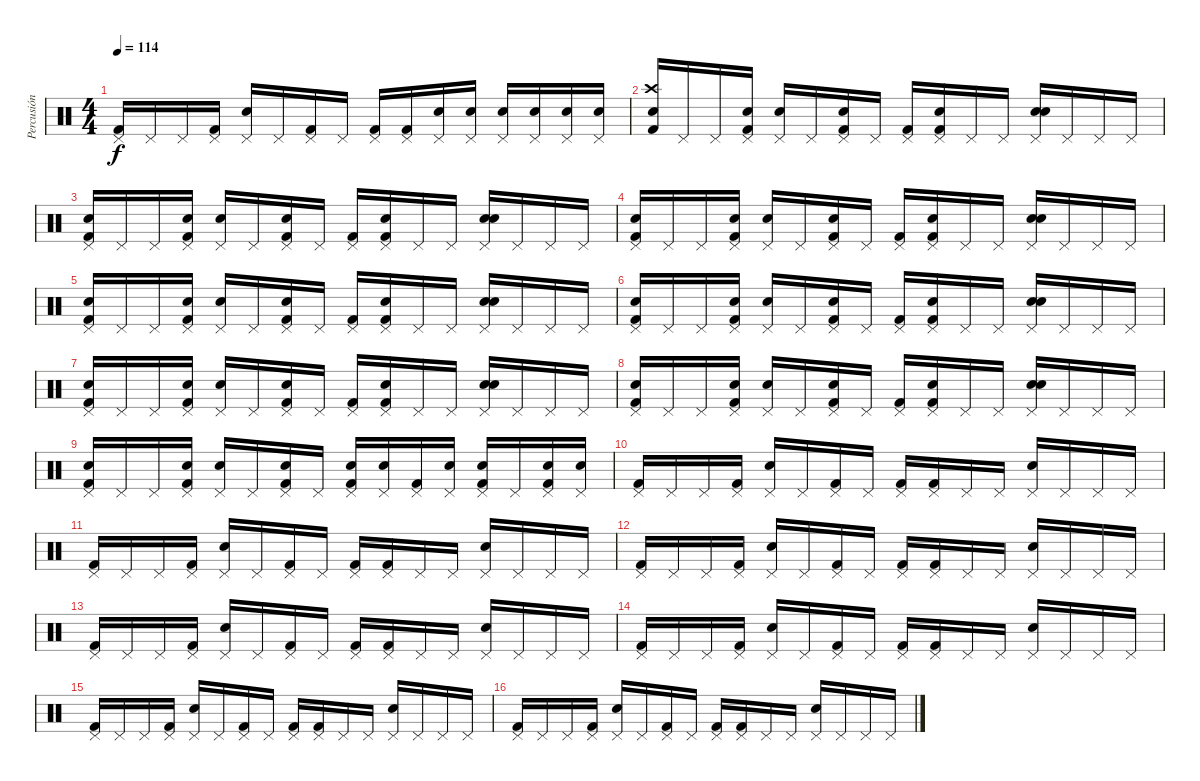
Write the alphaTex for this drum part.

\track ("Percusión" "Percusión") {instrument percussion}
\staff {score}
\articulation defaults
\ts (4 4)
\tempo 114
\clef neutral
\ks c
("Pedal Hi-Hat (hit)" "Kick (hit) 2").16{dy f} "Pedal Hi-Hat (hit)".16 "Pedal Hi-Hat (hit)".16 ("Pedal Hi-Hat (hit)" "Kick (hit) 2").16 ("Pedal Hi-Hat (hit)" "Snare (hit) 2").16 "Pedal Hi-Hat (hit)".16 ("Pedal Hi-Hat (hit)" "Kick (hit) 2").16 "Pedal Hi-Hat (hit)".16 ("Pedal Hi-Hat (hit)" "Kick (hit) 2").16 ("Pedal Hi-Hat (hit)" "Kick (hit) 2").16 ("Pedal Hi-Hat (hit)" "Snare (hit) 2").16 ("Pedal Hi-Hat (hit)" "Snare (hit) 2").16 ("Pedal Hi-Hat (hit)" "Snare (hit) 2").16 ("Pedal Hi-Hat (hit)" "Snare (hit) 2").16 ("Pedal Hi-Hat (hit)" "Snare (hit) 2").16 ("Pedal Hi-Hat (hit)" "Snare (hit) 2").16 |
("Crash high (hit)" "Hand Clap (hit)" "Kick (hit) 2").16 "Pedal Hi-Hat (hit)".16 "Pedal Hi-Hat (hit)".16 ("Pedal Hi-Hat (hit)" "Hand Clap (hit)" "Kick (hit) 2").16 ("Pedal Hi-Hat (hit)" "Snare (hit) 2").16 "Pedal Hi-Hat (hit)".16 ("Pedal Hi-Hat (hit)" "Hand Clap (hit)" "Kick (hit) 2").16 "Pedal Hi-Hat (hit)".16 ("Pedal Hi-Hat (hit)" "Kick (hit) 2").16 ("Pedal Hi-Hat (hit)" "Hand Clap (hit)" "Kick (hit) 2").16 "Pedal Hi-Hat (hit)".16 "Pedal Hi-Hat (hit)".16 ("Pedal Hi-Hat (hit)" "Hand Clap (hit)" "Snare (hit) 2").16 "Pedal Hi-Hat (hit)".16 "Pedal Hi-Hat (hit)".16 "Pedal Hi-Hat (hit)".16 |
("Pedal Hi-Hat (hit)" "Hand Clap (hit)" "Kick (hit) 2").16 "Pedal Hi-Hat (hit)".16 "Pedal Hi-Hat (hit)".16 ("Pedal Hi-Hat (hit)" "Hand Clap (hit)" "Kick (hit) 2").16 ("Pedal Hi-Hat (hit)" "Snare (hit) 2").16 "Pedal Hi-Hat (hit)".16 ("Pedal Hi-Hat (hit)" "Hand Clap (hit)" "Kick (hit) 2").16 "Pedal Hi-Hat (hit)".16 ("Pedal Hi-Hat (hit)" "Kick (hit) 2").16 ("Pedal Hi-Hat (hit)" "Hand Clap (hit)" "Kick (hit) 2").16 "Pedal Hi-Hat (hit)".16 "Pedal Hi-Hat (hit)".16 ("Pedal Hi-Hat (hit)" "Hand Clap (hit)" "Snare (hit) 2").16 "Pedal Hi-Hat (hit)".16 "Pedal Hi-Hat (hit)".16 "Pedal Hi-Hat (hit)".16 |
("Pedal Hi-Hat (hit)" "Hand Clap (hit)" "Kick (hit) 2").16 "Pedal Hi-Hat (hit)".16 "Pedal Hi-Hat (hit)".16 ("Pedal Hi-Hat (hit)" "Hand Clap (hit)" "Kick (hit) 2").16 ("Pedal Hi-Hat (hit)" "Snare (hit) 2").16 "Pedal Hi-Hat (hit)".16 ("Pedal Hi-Hat (hit)" "Hand Clap (hit)" "Kick (hit) 2").16 "Pedal Hi-Hat (hit)".16 ("Pedal Hi-Hat (hit)" "Kick (hit) 2").16 ("Pedal Hi-Hat (hit)" "Hand Clap (hit)" "Kick (hit) 2").16 "Pedal Hi-Hat (hit)".16 "Pedal Hi-Hat (hit)".16 ("Pedal Hi-Hat (hit)" "Hand Clap (hit)" "Snare (hit) 2").16 "Pedal Hi-Hat (hit)".16 "Pedal Hi-Hat (hit)".16 "Pedal Hi-Hat (hit)".16 |
("Pedal Hi-Hat (hit)" "Hand Clap (hit)" "Kick (hit) 2").16 "Pedal Hi-Hat (hit)".16 "Pedal Hi-Hat (hit)".16 ("Pedal Hi-Hat (hit)" "Hand Clap (hit)" "Kick (hit) 2").16 ("Pedal Hi-Hat (hit)" "Snare (hit) 2").16 "Pedal Hi-Hat (hit)".16 ("Pedal Hi-Hat (hit)" "Hand Clap (hit)" "Kick (hit) 2").16 "Pedal Hi-Hat (hit)".16 ("Pedal Hi-Hat (hit)" "Kick (hit) 2").16 ("Pedal Hi-Hat (hit)" "Hand Clap (hit)" "Kick (hit) 2").16 "Pedal Hi-Hat (hit)".16 "Pedal Hi-Hat (hit)".16 ("Pedal Hi-Hat (hit)" "Hand Clap (hit)" "Snare (hit) 2").16 "Pedal Hi-Hat (hit)".16 "Pedal Hi-Hat (hit)".16 "Pedal Hi-Hat (hit)".16 |
("Pedal Hi-Hat (hit)" "Hand Clap (hit)" "Kick (hit) 2").16 "Pedal Hi-Hat (hit)".16 "Pedal Hi-Hat (hit)".16 ("Pedal Hi-Hat (hit)" "Hand Clap (hit)" "Kick (hit) 2").16 ("Pedal Hi-Hat (hit)" "Snare (hit) 2").16 "Pedal Hi-Hat (hit)".16 ("Pedal Hi-Hat (hit)" "Hand Clap (hit)" "Kick (hit) 2").16 "Pedal Hi-Hat (hit)".16 ("Pedal Hi-Hat (hit)" "Kick (hit) 2").16 ("Pedal Hi-Hat (hit)" "Hand Clap (hit)" "Kick (hit) 2").16 "Pedal Hi-Hat (hit)".16 "Pedal Hi-Hat (hit)".16 ("Pedal Hi-Hat (hit)" "Hand Clap (hit)" "Snare (hit) 2").16 "Pedal Hi-Hat (hit)".16 "Pedal Hi-Hat (hit)".16 "Pedal Hi-Hat (hit)".16 |
("Pedal Hi-Hat (hit)" "Hand Clap (hit)" "Kick (hit) 2").16 "Pedal Hi-Hat (hit)".16 "Pedal Hi-Hat (hit)".16 ("Pedal Hi-Hat (hit)" "Hand Clap (hit)" "Kick (hit) 2").16 ("Pedal Hi-Hat (hit)" "Snare (hit) 2").16 "Pedal Hi-Hat (hit)".16 ("Pedal Hi-Hat (hit)" "Hand Clap (hit)" "Kick (hit) 2").16 "Pedal Hi-Hat (hit)".16 ("Pedal Hi-Hat (hit)" "Kick (hit) 2").16 ("Pedal Hi-Hat (hit)" "Hand Clap (hit)" "Kick (hit) 2").16 "Pedal Hi-Hat (hit)".16 "Pedal Hi-Hat (hit)".16 ("Pedal Hi-Hat (hit)" "Hand Clap (hit)" "Snare (hit) 2").16 "Pedal Hi-Hat (hit)".16 "Pedal Hi-Hat (hit)".16 "Pedal Hi-Hat (hit)".16 |
("Pedal Hi-Hat (hit)" "Hand Clap (hit)" "Kick (hit) 2").16 "Pedal Hi-Hat (hit)".16 "Pedal Hi-Hat (hit)".16 ("Pedal Hi-Hat (hit)" "Hand Clap (hit)" "Kick (hit) 2").16 ("Pedal Hi-Hat (hit)" "Snare (hit) 2").16 "Pedal Hi-Hat (hit)".16 ("Pedal Hi-Hat (hit)" "Hand Clap (hit)" "Kick (hit) 2").16 "Pedal Hi-Hat (hit)".16 ("Pedal Hi-Hat (hit)" "Kick (hit) 2").16 ("Pedal Hi-Hat (hit)" "Hand Clap (hit)" "Kick (hit) 2").16 "Pedal Hi-Hat (hit)".16 "Pedal Hi-Hat (hit)".16 ("Pedal Hi-Hat (hit)" "Hand Clap (hit)" "Snare (hit) 2").16 "Pedal Hi-Hat (hit)".16 "Pedal Hi-Hat (hit)".16 "Pedal Hi-Hat (hit)".16 |
("Pedal Hi-Hat (hit)" "Hand Clap (hit)" "Kick (hit) 2").16 "Pedal Hi-Hat (hit)".16 "Pedal Hi-Hat (hit)".16 ("Pedal Hi-Hat (hit)" "Hand Clap (hit)" "Kick (hit) 2").16 ("Pedal Hi-Hat (hit)" "Snare (hit) 2").16 "Pedal Hi-Hat (hit)".16 ("Pedal Hi-Hat (hit)" "Hand Clap (hit)" "Kick (hit) 2").16 "Pedal Hi-Hat (hit)".16 ("Pedal Hi-Hat (hit)" "Snare (hit) 2" "Kick (hit) 2").16 ("Pedal Hi-Hat (hit)" "Hand Clap (hit)").16 ("Pedal Hi-Hat (hit)" "Kick (hit) 2").16 ("Pedal Hi-Hat (hit)" "Snare (hit) 2").16 ("Pedal Hi-Hat (hit)" "Hand Clap (hit)" "Kick (hit) 2").16 "Pedal Hi-Hat (hit)".16 ("Pedal Hi-Hat (hit)" "Snare (hit) 2" "Kick (hit) 2").16 ("Pedal Hi-Hat (hit)" "Snare (hit) 2").16 |
("Pedal Hi-Hat (hit)" "Kick (hit) 2").16 "Pedal Hi-Hat (hit)".16 "Pedal Hi-Hat (hit)".16 ("Pedal Hi-Hat (hit)" "Kick (hit) 2").16 ("Pedal Hi-Hat (hit)" "Snare (hit) 2").16 "Pedal Hi-Hat (hit)".16 ("Pedal Hi-Hat (hit)" "Kick (hit) 2").16 "Pedal Hi-Hat (hit)".16 ("Pedal Hi-Hat (hit)" "Kick (hit) 2").16 ("Pedal Hi-Hat (hit)" "Kick (hit) 2").16 "Pedal Hi-Hat (hit)".16 "Pedal Hi-Hat (hit)".16 ("Pedal Hi-Hat (hit)" "Snare (hit) 2").16 "Pedal Hi-Hat (hit)".16 "Pedal Hi-Hat (hit)".16 "Pedal Hi-Hat (hit)".16 |
("Pedal Hi-Hat (hit)" "Kick (hit) 2").16 "Pedal Hi-Hat (hit)".16 "Pedal Hi-Hat (hit)".16 ("Pedal Hi-Hat (hit)" "Kick (hit) 2").16 ("Pedal Hi-Hat (hit)" "Snare (hit) 2").16 "Pedal Hi-Hat (hit)".16 ("Pedal Hi-Hat (hit)" "Kick (hit) 2").16 "Pedal Hi-Hat (hit)".16 ("Pedal Hi-Hat (hit)" "Kick (hit) 2").16 ("Pedal Hi-Hat (hit)" "Kick (hit) 2").16 "Pedal Hi-Hat (hit)".16 "Pedal Hi-Hat (hit)".16 ("Pedal Hi-Hat (hit)" "Snare (hit) 2").16 "Pedal Hi-Hat (hit)".16 "Pedal Hi-Hat (hit)".16 "Pedal Hi-Hat (hit)".16 |
("Pedal Hi-Hat (hit)" "Kick (hit) 2").16 "Pedal Hi-Hat (hit)".16 "Pedal Hi-Hat (hit)".16 ("Pedal Hi-Hat (hit)" "Kick (hit) 2").16 ("Pedal Hi-Hat (hit)" "Snare (hit) 2").16 "Pedal Hi-Hat (hit)".16 ("Pedal Hi-Hat (hit)" "Kick (hit) 2").16 "Pedal Hi-Hat (hit)".16 ("Pedal Hi-Hat (hit)" "Kick (hit) 2").16 ("Pedal Hi-Hat (hit)" "Kick (hit) 2").16 "Pedal Hi-Hat (hit)".16 "Pedal Hi-Hat (hit)".16 ("Pedal Hi-Hat (hit)" "Snare (hit) 2").16 "Pedal Hi-Hat (hit)".16 "Pedal Hi-Hat (hit)".16 "Pedal Hi-Hat (hit)".16 |
("Pedal Hi-Hat (hit)" "Kick (hit) 2").16 "Pedal Hi-Hat (hit)".16 "Pedal Hi-Hat (hit)".16 ("Pedal Hi-Hat (hit)" "Kick (hit) 2").16 ("Pedal Hi-Hat (hit)" "Snare (hit) 2").16 "Pedal Hi-Hat (hit)".16 ("Pedal Hi-Hat (hit)" "Kick (hit) 2").16 "Pedal Hi-Hat (hit)".16 ("Pedal Hi-Hat (hit)" "Kick (hit) 2").16 ("Pedal Hi-Hat (hit)" "Kick (hit) 2").16 "Pedal Hi-Hat (hit)".16 "Pedal Hi-Hat (hit)".16 ("Pedal Hi-Hat (hit)" "Snare (hit) 2").16 "Pedal Hi-Hat (hit)".16 "Pedal Hi-Hat (hit)".16 "Pedal Hi-Hat (hit)".16 |
("Pedal Hi-Hat (hit)" "Kick (hit) 2").16 "Pedal Hi-Hat (hit)".16 "Pedal Hi-Hat (hit)".16 ("Pedal Hi-Hat (hit)" "Kick (hit) 2").16 ("Pedal Hi-Hat (hit)" "Snare (hit) 2").16 "Pedal Hi-Hat (hit)".16 ("Pedal Hi-Hat (hit)" "Kick (hit) 2").16 "Pedal Hi-Hat (hit)".16 ("Pedal Hi-Hat (hit)" "Kick (hit) 2").16 ("Pedal Hi-Hat (hit)" "Kick (hit) 2").16 "Pedal Hi-Hat (hit)".16 "Pedal Hi-Hat (hit)".16 ("Pedal Hi-Hat (hit)" "Snare (hit) 2").16 "Pedal Hi-Hat (hit)".16 "Pedal Hi-Hat (hit)".16 "Pedal Hi-Hat (hit)".16 |
("Pedal Hi-Hat (hit)" "Kick (hit) 2").16 "Pedal Hi-Hat (hit)".16 "Pedal Hi-Hat (hit)".16 ("Pedal Hi-Hat (hit)" "Kick (hit) 2").16 ("Pedal Hi-Hat (hit)" "Snare (hit) 2").16 "Pedal Hi-Hat (hit)".16 ("Pedal Hi-Hat (hit)" "Kick (hit) 2").16 "Pedal Hi-Hat (hit)".16 ("Pedal Hi-Hat (hit)" "Kick (hit) 2").16 ("Pedal Hi-Hat (hit)" "Kick (hit) 2").16 "Pedal Hi-Hat (hit)".16 "Pedal Hi-Hat (hit)".16 ("Pedal Hi-Hat (hit)" "Snare (hit) 2").16 "Pedal Hi-Hat (hit)".16 "Pedal Hi-Hat (hit)".16 "Pedal Hi-Hat (hit)".16 |
("Pedal Hi-Hat (hit)" "Kick (hit) 2").16 "Pedal Hi-Hat (hit)".16 "Pedal Hi-Hat (hit)".16 ("Pedal Hi-Hat (hit)" "Kick (hit) 2").16 ("Pedal Hi-Hat (hit)" "Snare (hit) 2").16 "Pedal Hi-Hat (hit)".16 ("Pedal Hi-Hat (hit)" "Kick (hit) 2").16 "Pedal Hi-Hat (hit)".16 ("Pedal Hi-Hat (hit)" "Kick (hit) 2").16 ("Pedal Hi-Hat (hit)" "Kick (hit) 2").16 "Pedal Hi-Hat (hit)".16 "Pedal Hi-Hat (hit)".16 ("Pedal Hi-Hat (hit)" "Snare (hit) 2").16 "Pedal Hi-Hat (hit)".16 "Pedal Hi-Hat (hit)".16 "Pedal Hi-Hat (hit)".16
